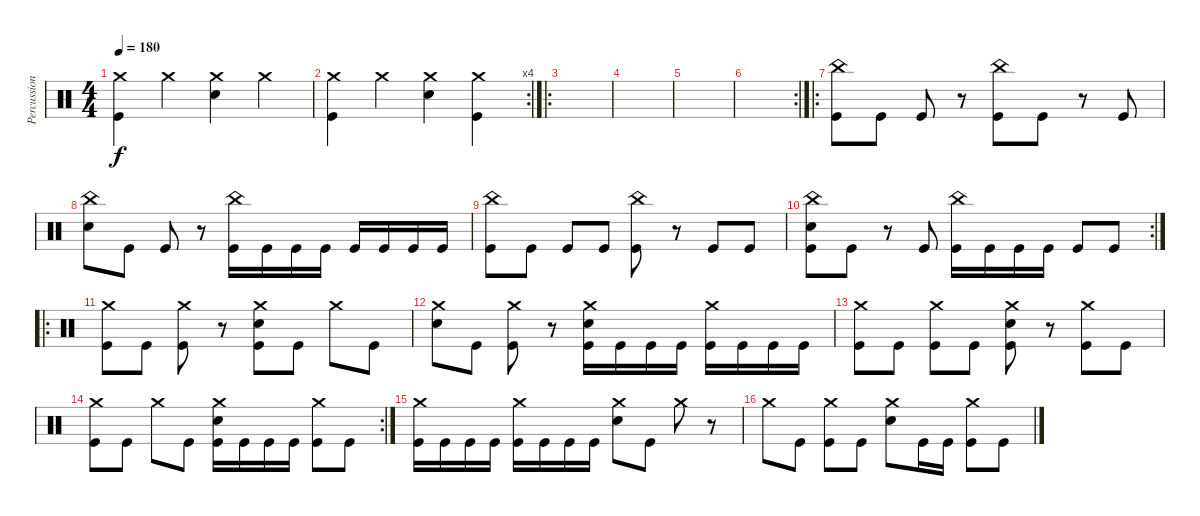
\track ("Percussion" "Percussion") {instrument percussion}
\staff {score}
\articulation defaults
\ts (4 4)
\tempo 180
\clef neutral
\ks c
("Crash medium (hit)" "Kick (hit)").4{dy f} "Crash medium (hit)".4 ("Crash medium (hit)" "Snare (hit) 2").4 "Crash medium (hit)".4 |
\rc 4
("Crash medium (hit)" "Kick (hit)").4 "Crash medium (hit)".4 ("Crash medium (hit)" "Snare (hit) 2").4 ("Crash medium (hit)" "Kick (hit)").4 |
\ro
|
|
|
\rc 2
|
\ro
("China (hit)" "Kick (hit)").8 "Kick (hit)".8 "Kick (hit)".8 r.8 ("China (hit)" "Kick (hit)").8 "Kick (hit)".8 r.8 "Kick (hit)".8 |
("China (hit)" "Snare (hit) 2").8 "Kick (hit)".8 "Kick (hit)".8 r.8 ("China (hit)" "Kick (hit)").16 "Kick (hit)".16 "Kick (hit)".16 "Kick (hit)".16 "Kick (hit)".16 "Kick (hit)".16 "Kick (hit)".16 "Kick (hit)".16 |
("China (hit)" "Kick (hit)").8 "Kick (hit)".8 "Kick (hit)".8 "Kick (hit)".8 ("China (hit)" "Kick (hit)").8 r.8 "Kick (hit)".8 "Kick (hit)".8 |
\rc 2
("China (hit)" "Snare (hit) 2" "Kick (hit)").8 "Kick (hit)".8 r.8 "Kick (hit)".8 ("China (hit)" "Kick (hit)").16 "Kick (hit)".16 "Kick (hit)".16 "Kick (hit)".16 "Kick (hit)".8 "Kick (hit)".8 |
\ro
("Crash medium (hit)" "Kick (hit)").8 "Kick (hit)".8 ("Crash medium (hit)" "Kick (hit)").8 r.8 ("Crash medium (hit)" "Snare (hit) 2" "Kick (hit)").8 "Kick (hit)".8 "Crash medium (hit)".8 "Kick (hit)".8 |
("Crash medium (hit)" "Snare (hit) 2").8 "Kick (hit)".8 ("Crash medium (hit)" "Kick (hit)").8 r.8 ("Crash medium (hit)" "Snare (hit) 2" "Kick (hit)").16 "Kick (hit)".16 "Kick (hit)".16 "Kick (hit)".16 ("Crash medium (hit)" "Kick (hit)").16 "Kick (hit)".16 "Kick (hit)".16 "Kick (hit)".16 |
("Crash medium (hit)" "Kick (hit)").8 "Kick (hit)".8 ("Crash medium (hit)" "Kick (hit)").8 "Kick (hit)".8 ("Crash medium (hit)" "Snare (hit) 2" "Kick (hit)").8 r.8 ("Crash medium (hit)" "Kick (hit)").8 "Kick (hit)".8 |
\rc 2
("Crash medium (hit)" "Kick (hit)").8 "Kick (hit)".8 "Crash medium (hit)".8 "Kick (hit)".8 ("Crash medium (hit)" "Snare (hit) 2" "Kick (hit)").16 "Kick (hit)".16 "Kick (hit)".16 "Kick (hit)".16 ("Crash medium (hit)" "Kick (hit)").8 "Kick (hit)".8 |
("Crash medium (hit)" "Kick (hit)").16 "Kick (hit)".16 "Kick (hit)".16 "Kick (hit)".16 ("Crash medium (hit)" "Kick (hit)").16 "Kick (hit)".16 "Kick (hit)".16 "Kick (hit)".16 ("Crash medium (hit)" "Snare (hit) 2").8 "Kick (hit)".8 "Crash medium (hit)".8 r.8 |
"Crash medium (hit)".8 "Kick (hit)".8 ("Crash medium (hit)" "Kick (hit)").8 "Kick (hit)".8 ("Crash medium (hit)" "Snare (hit) 2").8 "Kick (hit)".16 "Kick (hit)".16 ("Crash medium (hit)" "Kick (hit)").8 "Kick (hit)".8
